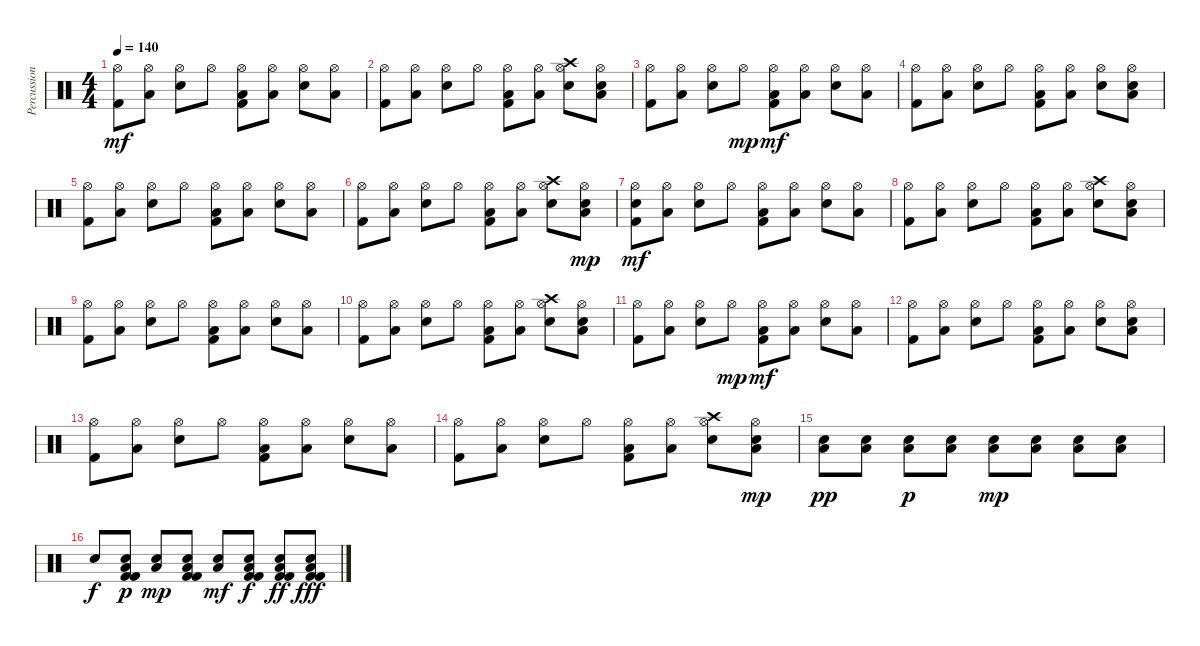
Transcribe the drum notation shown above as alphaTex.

\track ("Percussion" "Percussion") {instrument percussion}
\staff {score}
\articulation defaults
\ts (4 4)
\tempo 140
\clef neutral
\ks c
("Hi-Hat (open)" "Kick (hit) 2").8{dy mf} ("Low Tom (hit)" "Hi-Hat (open)").8 ("Hi-Hat (open)" "Electric Snare (hit)").8 "Hi-Hat (open)".8 ("Low Tom (hit)" "Hi-Hat (open)" "Kick (hit) 2").8 ("Low Tom (hit)" "Hi-Hat (open)").8 ("Hi-Hat (open)" "Electric Snare (hit)").8 ("Low Tom (hit)" "Hi-Hat (open)").8 |
("Hi-Hat (open)" "Kick (hit) 2").8 ("Low Tom (hit)" "Hi-Hat (open)").8 ("Hi-Hat (open)" "Electric Snare (hit)").8 "Hi-Hat (open)".8 ("Low Tom (hit)" "Hi-Hat (open)" "Kick (hit) 2").8 ("Low Tom (hit)" "Hi-Hat (open)").8 ("Crash high (hit)" "Hi-Hat (open)" "Electric Snare (hit)").8 ("Low Tom (hit)" "Hi-Hat (open)" "Electric Snare (hit)").8 |
("Hi-Hat (open)" "Kick (hit) 2").8 ("Low Tom (hit)" "Hi-Hat (open)").8 ("Hi-Hat (open)" "Electric Snare (hit)").8 "Hi-Hat (open)".8{dy mp} ("Low Tom (hit)" "Hi-Hat (open)" "Kick (hit) 2").8{dy mf} ("Low Tom (hit)" "Hi-Hat (open)").8 ("Hi-Hat (open)" "Electric Snare (hit)").8 ("Low Tom (hit)" "Hi-Hat (open)").8 |
("Hi-Hat (open)" "Kick (hit) 2").8 ("Low Tom (hit)" "Hi-Hat (open)").8 ("Hi-Hat (open)" "Electric Snare (hit)").8 "Hi-Hat (open)".8 ("Low Tom (hit)" "Hi-Hat (open)" "Kick (hit) 2").8 ("Low Tom (hit)" "Hi-Hat (open)").8 ("Hi-Hat (open)" "Electric Snare (hit)").8 ("Low Tom (hit)" "Hi-Hat (open)" "Electric Snare (hit)").8 |
("Hi-Hat (open)" "Kick (hit) 2").8 ("Low Tom (hit)" "Hi-Hat (open)").8 ("Hi-Hat (open)" "Electric Snare (hit)").8 "Hi-Hat (open)".8 ("Low Tom (hit)" "Hi-Hat (open)" "Kick (hit) 2").8 ("Low Tom (hit)" "Hi-Hat (open)").8 ("Hi-Hat (open)" "Electric Snare (hit)").8 ("Low Tom (hit)" "Hi-Hat (open)").8 |
("Hi-Hat (open)" "Kick (hit) 2").8 ("Low Tom (hit)" "Hi-Hat (open)").8 ("Hi-Hat (open)" "Electric Snare (hit)").8 "Hi-Hat (open)".8 ("Low Tom (hit)" "Hi-Hat (open)" "Kick (hit) 2").8 ("Low Tom (hit)" "Hi-Hat (open)").8 ("Crash high (hit)" "Hi-Hat (open)" "Electric Snare (hit)").8 ("Low Tom (hit)" "Hi-Hat (open)" "Electric Snare (hit)").8{dy mp} |
("Electric Snare (hit)" "Hi-Hat (open)" "Kick (hit) 2").8{dy mf} ("Low Tom (hit)" "Hi-Hat (open)").8 ("Hi-Hat (open)" "Electric Snare (hit)").8 "Hi-Hat (open)".8 ("Low Tom (hit)" "Hi-Hat (open)" "Kick (hit) 2").8 ("Low Tom (hit)" "Hi-Hat (open)").8 ("Hi-Hat (open)" "Electric Snare (hit)").8 ("Low Tom (hit)" "Hi-Hat (open)").8 |
("Hi-Hat (open)" "Kick (hit) 2").8 ("Low Tom (hit)" "Hi-Hat (open)").8 ("Hi-Hat (open)" "Electric Snare (hit)").8 "Hi-Hat (open)".8 ("Low Tom (hit)" "Hi-Hat (open)" "Kick (hit) 2").8 ("Low Tom (hit)" "Hi-Hat (open)").8 ("Crash high (hit)" "Hi-Hat (open)" "Electric Snare (hit)").8 ("Low Tom (hit)" "Hi-Hat (open)" "Electric Snare (hit)").8 |
("Hi-Hat (open)" "Kick (hit) 2").8 ("Low Tom (hit)" "Hi-Hat (open)").8 ("Hi-Hat (open)" "Electric Snare (hit)").8 "Hi-Hat (open)".8 ("Low Tom (hit)" "Hi-Hat (open)" "Kick (hit) 2").8 ("Low Tom (hit)" "Hi-Hat (open)").8 ("Hi-Hat (open)" "Electric Snare (hit)").8 ("Low Tom (hit)" "Hi-Hat (open)").8 |
("Hi-Hat (open)" "Kick (hit) 2").8 ("Low Tom (hit)" "Hi-Hat (open)").8 ("Hi-Hat (open)" "Electric Snare (hit)").8 "Hi-Hat (open)".8 ("Low Tom (hit)" "Hi-Hat (open)" "Kick (hit) 2").8 ("Low Tom (hit)" "Hi-Hat (open)").8 ("Crash high (hit)" "Hi-Hat (open)" "Electric Snare (hit)").8 ("Low Tom (hit)" "Hi-Hat (open)" "Electric Snare (hit)").8 |
("Hi-Hat (open)" "Kick (hit) 2").8 ("Low Tom (hit)" "Hi-Hat (open)").8 ("Hi-Hat (open)" "Electric Snare (hit)").8 "Hi-Hat (open)".8{dy mp} ("Low Tom (hit)" "Hi-Hat (open)" "Kick (hit) 2").8{dy mf} ("Low Tom (hit)" "Hi-Hat (open)").8 ("Hi-Hat (open)" "Electric Snare (hit)").8 ("Low Tom (hit)" "Hi-Hat (open)").8 |
("Hi-Hat (open)" "Kick (hit) 2").8 ("Low Tom (hit)" "Hi-Hat (open)").8 ("Hi-Hat (open)" "Electric Snare (hit)").8 "Hi-Hat (open)".8 ("Low Tom (hit)" "Hi-Hat (open)" "Kick (hit) 2").8 ("Low Tom (hit)" "Hi-Hat (open)").8 ("Hi-Hat (open)" "Electric Snare (hit)").8 ("Low Tom (hit)" "Hi-Hat (open)" "Electric Snare (hit)").8 |
("Hi-Hat (open)" "Kick (hit) 2").8 ("Low Tom (hit)" "Hi-Hat (open)").8 ("Hi-Hat (open)" "Electric Snare (hit)").8 "Hi-Hat (open)".8 ("Low Tom (hit)" "Hi-Hat (open)" "Kick (hit) 2").8 ("Low Tom (hit)" "Hi-Hat (open)").8 ("Hi-Hat (open)" "Electric Snare (hit)").8 ("Low Tom (hit)" "Hi-Hat (open)").8 |
("Hi-Hat (open)" "Kick (hit) 2").8 ("Low Tom (hit)" "Hi-Hat (open)").8 ("Hi-Hat (open)" "Electric Snare (hit)").8 "Hi-Hat (open)".8 ("Low Tom (hit)" "Hi-Hat (open)" "Kick (hit) 2").8 ("Low Tom (hit)" "Hi-Hat (open)").8 ("Crash high (hit)" "Hi-Hat (open)" "Electric Snare (hit)").8 ("Low Tom (hit)" "Hi-Hat (open)" "Electric Snare (hit)").8{dy mp} |
("Low Tom (hit)" "Electric Snare (hit)").8{dy pp} ("Low Tom (hit)" "Electric Snare (hit)").8 ("Low Tom (hit)" "Electric Snare (hit)").8{dy p} ("Low Tom (hit)" "Electric Snare (hit)").8 ("Low Tom (hit)" "Electric Snare (hit)").8{dy mp} ("Low Tom (hit)" "Electric Snare (hit)").8 ("Low Tom (hit)" "Electric Snare (hit)").8 ("Low Tom (hit)" "Electric Snare (hit)").8 |
"Electric Snare (hit)".8{dy f} ("Kick (hit) 2" "Kick (hit) 2" "Low Tom (hit)" "Electric Snare (hit)").8{dy p} ("Low Tom (hit)" "Electric Snare (hit)").8{dy mp} ("Kick (hit) 2" "Kick (hit) 2" "Low Tom (hit)" "Electric Snare (hit)").8 ("Low Tom (hit)" "Electric Snare (hit)").8{dy mf} ("Kick (hit) 2" "Kick (hit) 2" "Low Tom (hit)" "Electric Snare (hit)").8{dy f} ("Kick (hit) 2" "Kick (hit) 2" "Low Tom (hit)" "Electric Snare (hit)").8{dy ff} ("Kick (hit) 2" "Kick (hit) 2" "Low Tom (hit)" "Electric Snare (hit)").8{dy fff}
